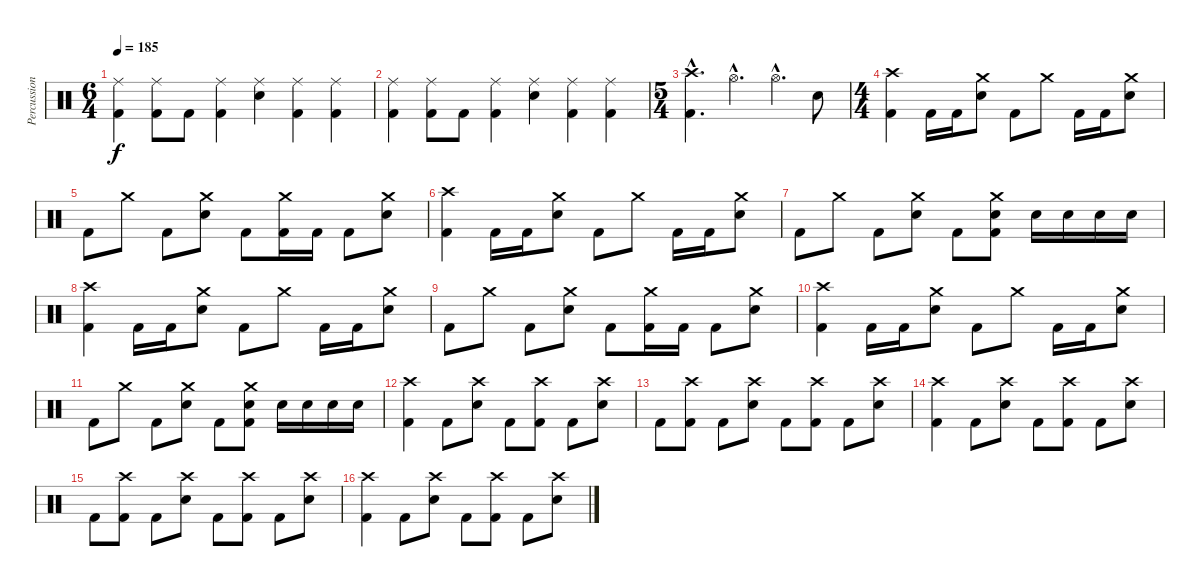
\track ("Percussion" "Percussion") {instrument percussion}
\staff {score}
\articulation defaults
\ts (6 4)
\tempo 185
\clef neutral
\ks c
("Ride (middle)" "Kick (hit) 2").4{dy f} ("Ride (middle)" "Kick (hit) 2").8 "Kick (hit) 2".8 ("Ride (middle)" "Kick (hit) 2").4 ("Ride (middle)" "Electric Snare (hit)").4 ("Ride (middle)" "Kick (hit) 2").4 ("Ride (middle)" "Kick (hit) 2").4 |
("Ride (middle)" "Kick (hit) 2").4 ("Ride (middle)" "Kick (hit) 2").8 "Kick (hit) 2".8 ("Ride (middle)" "Kick (hit) 2").4 ("Ride (middle)" "Electric Snare (hit)").4 ("Ride (middle)" "Kick (hit) 2").4 ("Ride (middle)" "Kick (hit) 2").4 |
\ts (5 4)
("Crash high (hit)"{hac} "Kick (hit) 2"{hac}).4{d} "Hi-Hat (open)"{hac}.4{d} "Hi-Hat (open)"{hac}.4{d} "Electric Snare (hit)".8 |
\ts (4 4)
("Crash high (hit)" "Kick (hit) 2").4 "Kick (hit) 2".16 "Kick (hit) 2".16 ("Crash medium (hit)" "Electric Snare (hit)").8 "Kick (hit) 2".8 "Crash medium (hit)".8 "Kick (hit) 2".16 "Kick (hit) 2".16 ("Crash medium (hit)" "Electric Snare (hit)").8 |
"Kick (hit) 2".8 "Crash medium (hit)".8 "Kick (hit) 2".8 ("Crash medium (hit)" "Electric Snare (hit)").8 "Kick (hit) 2".8 ("Crash medium (hit)" "Kick (hit) 2").16 "Kick (hit) 2".16 "Kick (hit) 2".8 ("Crash medium (hit)" "Electric Snare (hit)").8 |
("Crash high (hit)" "Kick (hit) 2").4 "Kick (hit) 2".16 "Kick (hit) 2".16 ("Crash medium (hit)" "Electric Snare (hit)").8 "Kick (hit) 2".8 "Crash medium (hit)".8 "Kick (hit) 2".16 "Kick (hit) 2".16 ("Crash medium (hit)" "Electric Snare (hit)").8 |
"Kick (hit) 2".8 "Crash medium (hit)".8 "Kick (hit) 2".8 ("Crash medium (hit)" "Electric Snare (hit)").8 "Kick (hit) 2".8 ("Crash medium (hit)" "Electric Snare (hit)" "Kick (hit) 2").8 "Electric Snare (hit)".16 "Electric Snare (hit)".16 "Electric Snare (hit)".16 "Electric Snare (hit)".16 |
("Crash high (hit)" "Kick (hit) 2").4 "Kick (hit) 2".16 "Kick (hit) 2".16 ("Crash medium (hit)" "Electric Snare (hit)").8 "Kick (hit) 2".8 "Crash medium (hit)".8 "Kick (hit) 2".16 "Kick (hit) 2".16 ("Crash medium (hit)" "Electric Snare (hit)").8 |
"Kick (hit) 2".8 "Crash medium (hit)".8 "Kick (hit) 2".8 ("Crash medium (hit)" "Electric Snare (hit)").8 "Kick (hit) 2".8 ("Crash medium (hit)" "Kick (hit) 2").16 "Kick (hit) 2".16 "Kick (hit) 2".8 ("Crash medium (hit)" "Electric Snare (hit)").8 |
("Crash high (hit)" "Kick (hit) 2").4 "Kick (hit) 2".16 "Kick (hit) 2".16 ("Crash medium (hit)" "Electric Snare (hit)").8 "Kick (hit) 2".8 "Crash medium (hit)".8 "Kick (hit) 2".16 "Kick (hit) 2".16 ("Crash medium (hit)" "Electric Snare (hit)").8 |
"Kick (hit) 2".8 "Crash medium (hit)".8 "Kick (hit) 2".8 ("Crash medium (hit)" "Electric Snare (hit)").8 "Kick (hit) 2".8 ("Crash medium (hit)" "Electric Snare (hit)" "Kick (hit) 2").8 "Electric Snare (hit)".16 "Electric Snare (hit)".16 "Electric Snare (hit)".16 "Electric Snare (hit)".16 |
("Crash high (hit)" "Kick (hit) 2").4 "Kick (hit) 2".8 ("Crash high (hit)" "Electric Snare (hit)").8 "Kick (hit) 2".8 ("Crash high (hit)" "Kick (hit) 2").8 "Kick (hit) 2".8 ("Crash high (hit)" "Electric Snare (hit)").8 |
"Kick (hit) 2".8 ("Crash high (hit)" "Kick (hit) 2").8 "Kick (hit) 2".8 ("Crash high (hit)" "Electric Snare (hit)").8 "Kick (hit) 2".8 ("Crash high (hit)" "Kick (hit) 2").8 "Kick (hit) 2".8 ("Crash high (hit)" "Electric Snare (hit)").8 |
("Crash high (hit)" "Kick (hit) 2").4 "Kick (hit) 2".8 ("Crash high (hit)" "Electric Snare (hit)").8 "Kick (hit) 2".8 ("Crash high (hit)" "Kick (hit) 2").8 "Kick (hit) 2".8 ("Crash high (hit)" "Electric Snare (hit)").8 |
"Kick (hit) 2".8 ("Crash high (hit)" "Kick (hit) 2").8 "Kick (hit) 2".8 ("Crash high (hit)" "Electric Snare (hit)").8 "Kick (hit) 2".8 ("Crash high (hit)" "Kick (hit) 2").8 "Kick (hit) 2".8 ("Crash high (hit)" "Electric Snare (hit)").8 |
("Crash high (hit)" "Kick (hit) 2").4 "Kick (hit) 2".8 ("Crash high (hit)" "Electric Snare (hit)").8 "Kick (hit) 2".8 ("Crash high (hit)" "Kick (hit) 2").8 "Kick (hit) 2".8 ("Crash high (hit)" "Electric Snare (hit)").8
